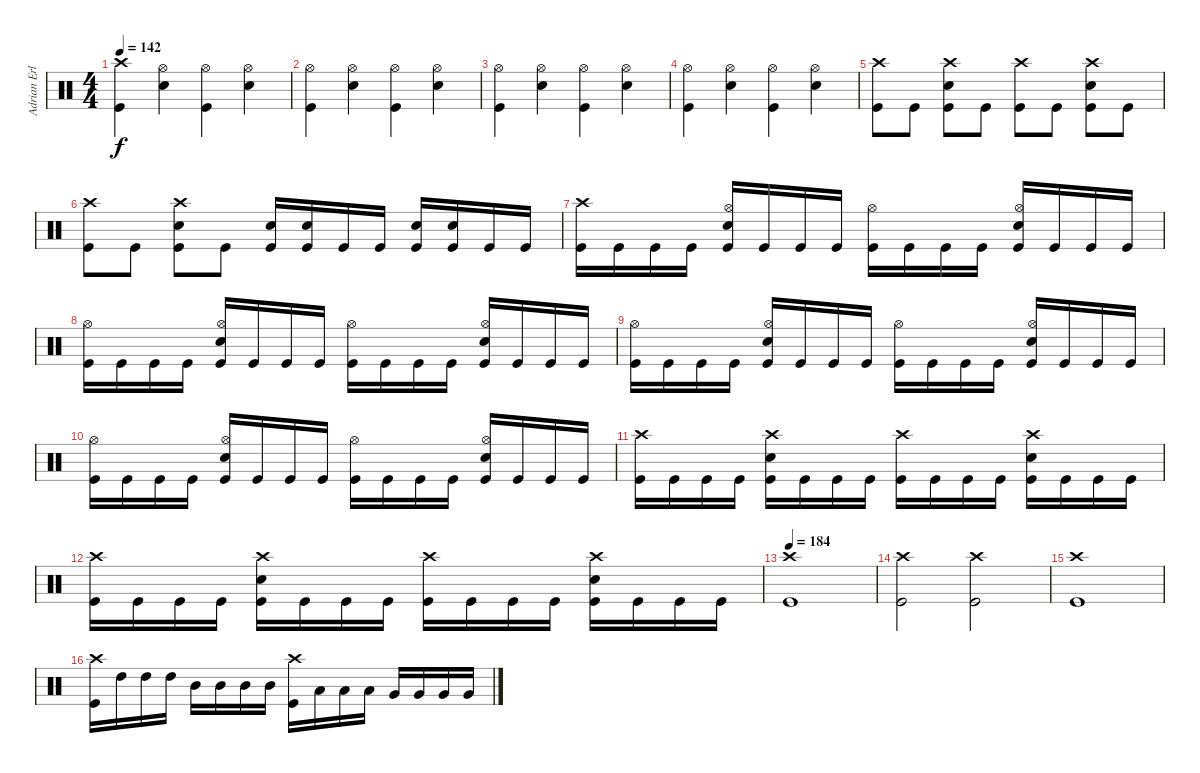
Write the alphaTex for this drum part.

\track ("Adrian Erlandsson (Norseman of the Apoca" "Adrian Erl") {instrument percussion}
\staff {score}
\articulation defaults
\ts (4 4)
\tempo 142
\clef neutral
\ks c
("Crash high (hit)" "Kick (hit)").4{dy f} ("Hi-Hat (open)" "Electric Snare (hit)").4 ("Hi-Hat (open)" "Kick (hit)").4 ("Hi-Hat (open)" "Electric Snare (hit)").4 |
("Hi-Hat (open)" "Kick (hit)").4 ("Hi-Hat (open)" "Electric Snare (hit)").4 ("Hi-Hat (open)" "Kick (hit)").4 ("Hi-Hat (open)" "Electric Snare (hit)").4 |
("Hi-Hat (open)" "Kick (hit)").4 ("Hi-Hat (open)" "Electric Snare (hit)").4 ("Hi-Hat (open)" "Kick (hit)").4 ("Hi-Hat (open)" "Electric Snare (hit)").4 |
("Hi-Hat (open)" "Kick (hit)").4 ("Hi-Hat (open)" "Electric Snare (hit)").4 ("Hi-Hat (open)" "Kick (hit)").4 ("Hi-Hat (open)" "Electric Snare (hit)").4 |
("Crash high (hit)" "Kick (hit)").8 "Kick (hit)".8 ("Crash high (hit)" "Electric Snare (hit)" "Kick (hit)").8 "Kick (hit)".8 ("Crash high (hit)" "Kick (hit)").8 "Kick (hit)".8 ("Crash high (hit)" "Electric Snare (hit)" "Kick (hit)").8 "Kick (hit)".8 |
("Crash high (hit)" "Kick (hit)").8 "Kick (hit)".8 ("Crash high (hit)" "Electric Snare (hit)" "Kick (hit)").8 "Kick (hit)".8 ("Electric Snare (hit)" "Kick (hit)").16 ("Electric Snare (hit)" "Kick (hit)").16 "Kick (hit)".16 "Kick (hit)".16 ("Electric Snare (hit)" "Kick (hit)").16 ("Electric Snare (hit)" "Kick (hit)").16 "Kick (hit)".16 "Kick (hit)".16 |
("Crash high (hit)" "Kick (hit)").16 "Kick (hit)".16 "Kick (hit)".16 "Kick (hit)".16 ("Hi-Hat (open)" "Electric Snare (hit)" "Kick (hit)").16 "Kick (hit)".16 "Kick (hit)".16 "Kick (hit)".16 ("Hi-Hat (open)" "Kick (hit)").16 "Kick (hit)".16 "Kick (hit)".16 "Kick (hit)".16 ("Hi-Hat (open)" "Electric Snare (hit)" "Kick (hit)").16 "Kick (hit)".16 "Kick (hit)".16 "Kick (hit)".16 |
("Hi-Hat (open)" "Kick (hit)").16 "Kick (hit)".16 "Kick (hit)".16 "Kick (hit)".16 ("Hi-Hat (open)" "Electric Snare (hit)" "Kick (hit)").16 "Kick (hit)".16 "Kick (hit)".16 "Kick (hit)".16 ("Hi-Hat (open)" "Kick (hit)").16 "Kick (hit)".16 "Kick (hit)".16 "Kick (hit)".16 ("Hi-Hat (open)" "Electric Snare (hit)" "Kick (hit)").16 "Kick (hit)".16 "Kick (hit)".16 "Kick (hit)".16 |
("Hi-Hat (open)" "Kick (hit)").16 "Kick (hit)".16 "Kick (hit)".16 "Kick (hit)".16 ("Hi-Hat (open)" "Electric Snare (hit)" "Kick (hit)").16 "Kick (hit)".16 "Kick (hit)".16 "Kick (hit)".16 ("Hi-Hat (open)" "Kick (hit)").16 "Kick (hit)".16 "Kick (hit)".16 "Kick (hit)".16 ("Hi-Hat (open)" "Electric Snare (hit)" "Kick (hit)").16 "Kick (hit)".16 "Kick (hit)".16 "Kick (hit)".16 |
("Hi-Hat (open)" "Kick (hit)").16 "Kick (hit)".16 "Kick (hit)".16 "Kick (hit)".16 ("Hi-Hat (open)" "Electric Snare (hit)" "Kick (hit)").16 "Kick (hit)".16 "Kick (hit)".16 "Kick (hit)".16 ("Hi-Hat (open)" "Kick (hit)").16 "Kick (hit)".16 "Kick (hit)".16 "Kick (hit)".16 ("Hi-Hat (open)" "Electric Snare (hit)" "Kick (hit)").16 "Kick (hit)".16 "Kick (hit)".16 "Kick (hit)".16 |
("Crash high (hit)" "Kick (hit)").16 "Kick (hit)".16 "Kick (hit)".16 "Kick (hit)".16 ("Crash high (hit)" "Electric Snare (hit)" "Kick (hit)").16 "Kick (hit)".16 "Kick (hit)".16 "Kick (hit)".16 ("Crash high (hit)" "Kick (hit)").16 "Kick (hit)".16 "Kick (hit)".16 "Kick (hit)".16 ("Crash high (hit)" "Electric Snare (hit)" "Kick (hit)").16 "Kick (hit)".16 "Kick (hit)".16 "Kick (hit)".16 |
("Crash high (hit)" "Kick (hit)").16 "Kick (hit)".16 "Kick (hit)".16 "Kick (hit)".16 ("Crash high (hit)" "Electric Snare (hit)" "Kick (hit)").16 "Kick (hit)".16 "Kick (hit)".16 "Kick (hit)".16 ("Crash high (hit)" "Kick (hit)").16 "Kick (hit)".16 "Kick (hit)".16 "Kick (hit)".16 ("Crash high (hit)" "Electric Snare (hit)" "Kick (hit)").16 "Kick (hit)".16 "Kick (hit)".16 "Kick (hit)".16 |
\tempo 184
("Crash high (hit)" "Kick (hit)").1 |
("Crash high (hit)" "Kick (hit)").2 ("Crash high (hit)" "Kick (hit)").2 |
("Crash high (hit)" "Kick (hit)").1 |
("Crash high (hit)" "Kick (hit)").16 "High Tom (hit)".16 "High Tom (hit)".16 "High Tom (hit)".16 "Mid Tom (hit)".16 "Mid Tom (hit)".16 "Mid Tom (hit)".16 "Mid Tom (hit)".16 ("Crash high (hit)" "Kick (hit)").16 "Low Tom (hit)".16 "Low Tom (hit)".16 "Low Tom (hit)".16 "Very Low Tom (hit)".16 "Very Low Tom (hit)".16 "Very Low Tom (hit)".16 "Very Low Tom (hit)".16
